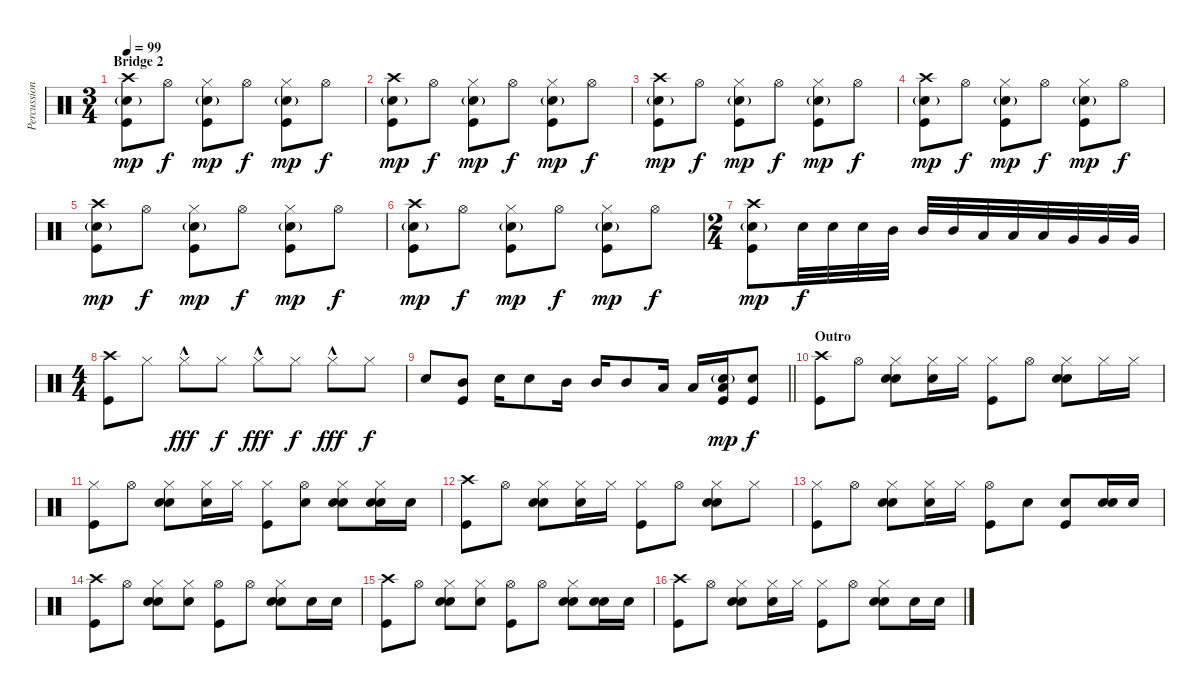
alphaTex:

\track ("Percussion" "Percussion") {instrument percussion}
\staff {score}
\articulation defaults
\ts (3 4)
\section ("" "Bridge 2")
\tempo 99
\clef neutral
\ks c
("Crash high (hit)" "Snare (hit) 2"{g} "Kick (hit)").8{dy mp} "Hi-Hat (open)".8{dy f} ("Hi-Hat (closed)" "Snare (hit) 2"{g} "Kick (hit)").8{dy mp} "Hi-Hat (open)".8{dy f} ("Hi-Hat (closed)" "Snare (hit) 2"{g} "Kick (hit)").8{dy mp} "Hi-Hat (open)".8{dy f} |
("Crash high (hit)" "Snare (hit) 2"{g} "Kick (hit)").8{dy mp} "Hi-Hat (open)".8{dy f} ("Hi-Hat (closed)" "Snare (hit) 2"{g} "Kick (hit)").8{dy mp} "Hi-Hat (open)".8{dy f} ("Hi-Hat (closed)" "Snare (hit) 2"{g} "Kick (hit)").8{dy mp} "Hi-Hat (open)".8{dy f} |
("Crash high (hit)" "Snare (hit) 2"{g} "Kick (hit)").8{dy mp} "Hi-Hat (open)".8{dy f} ("Hi-Hat (closed)" "Snare (hit) 2"{g} "Kick (hit)").8{dy mp} "Hi-Hat (open)".8{dy f} ("Hi-Hat (closed)" "Snare (hit) 2"{g} "Kick (hit)").8{dy mp} "Hi-Hat (open)".8{dy f} |
("Crash high (hit)" "Snare (hit) 2"{g} "Kick (hit)").8{dy mp} "Hi-Hat (open)".8{dy f} ("Hi-Hat (closed)" "Snare (hit) 2"{g} "Kick (hit)").8{dy mp} "Hi-Hat (open)".8{dy f} ("Hi-Hat (closed)" "Snare (hit) 2"{g} "Kick (hit)").8{dy mp} "Hi-Hat (open)".8{dy f} |
("Crash high (hit)" "Snare (hit) 2"{g} "Kick (hit)").8{dy mp} "Hi-Hat (open)".8{dy f} ("Hi-Hat (closed)" "Snare (hit) 2"{g} "Kick (hit)").8{dy mp} "Hi-Hat (open)".8{dy f} ("Hi-Hat (closed)" "Snare (hit) 2"{g} "Kick (hit)").8{dy mp} "Hi-Hat (open)".8{dy f} |
("Crash high (hit)" "Snare (hit) 2"{g} "Kick (hit)").8{dy mp} "Hi-Hat (open)".8{dy f} ("Hi-Hat (closed)" "Snare (hit) 2"{g} "Kick (hit)").8{dy mp} "Hi-Hat (open)".8{dy f} ("Hi-Hat (closed)" "Snare (hit) 2"{g} "Kick (hit)").8{dy mp} "Hi-Hat (open)".8{dy f} |
\ts (2 4)
("Crash high (hit)" "Snare (hit) 2"{g} "Kick (hit)").8{dy mp} "Snare (hit) 2".32{dy f} "Snare (hit) 2".32 "Snare (hit) 2".32 "Mid Tom (hit)".32 "Mid Tom (hit)".32 "Mid Tom (hit)".32 "Low Tom (hit)".32 "Low Tom (hit)".32 "Low Tom (hit)".32 "Very Low Tom (hit)".32 "Very Low Tom (hit)".32 "Very Low Tom (hit)".32 |
\ts (4 4)
("Crash high (hit)" "Kick (hit)").8 "Hi-Hat (closed)".8 "Hi-Hat (closed)"{hac}.8{dy fff} "Hi-Hat (closed)".8{dy f} "Hi-Hat (closed)"{hac}.8{dy fff} "Hi-Hat (closed)".8{dy f} "Hi-Hat (closed)"{hac}.8{dy fff} "Hi-Hat (closed)".8{dy f} |
\barLineRight lightlight "Snare (hit) 2".8
("Mid Tom (hit)" "Kick (hit)").8 "Snare (hit) 2".16 "Snare (hit) 2".8 "Mid Tom (hit)".16 "Mid Tom (hit)".16 "Mid Tom (hit)".8 "Low Tom (hit)".16 "Low Tom (hit)".16 ("Low Tom (hit)" "Snare (hit) 2"{g} "Kick (hit)").16{dy mp} ("Snare (hit) 2" "Kick (hit)").8{dy f} |
\section ("" "Outro")
("Crash high (hit)" "Kick (hit)").8 "Hi-Hat (open)".8 ("Hi-Hat (closed)" "Hand Clap (hit)" "Snare (hit) 2").8 ("Hi-Hat (closed)" "Hand Clap (hit)").16 "Hi-Hat (closed)".16 ("Hi-Hat (closed)" "Kick (hit)").8 "Hi-Hat (open)".8 ("Hi-Hat (closed)" "Hand Clap (hit)" "Snare (hit) 2").8 "Hi-Hat (closed)".16 "Hi-Hat (closed)".16 |
("Hi-Hat (closed)" "Kick (hit)").8 "Hi-Hat (open)".8 ("Hi-Hat (closed)" "Hand Clap (hit)" "Snare (hit) 2").8 ("Hi-Hat (closed)" "Hand Clap (hit)").16 "Hi-Hat (closed)".16 ("Hi-Hat (closed)" "Kick (hit)").8 ("Hi-Hat (open)" "Snare (hit) 2").8 ("Hi-Hat (closed)" "Hand Clap (hit)" "Snare (hit) 2").8 ("Hi-Hat (closed)" "Hand Clap (hit)" "Snare (hit) 2").16 "Snare (hit) 2".16 |
("Crash high (hit)" "Kick (hit)").8 "Hi-Hat (open)".8 ("Hi-Hat (closed)" "Hand Clap (hit)" "Snare (hit) 2").8 ("Hi-Hat (closed)" "Hand Clap (hit)").16 "Hi-Hat (closed)".16 ("Hi-Hat (closed)" "Kick (hit)").8 "Hi-Hat (open)".8 ("Hi-Hat (closed)" "Hand Clap (hit)" "Snare (hit) 2").8 "Hi-Hat (closed)".8 |
("Hi-Hat (closed)" "Kick (hit)").8 "Hi-Hat (open)".8 ("Hi-Hat (closed)" "Hand Clap (hit)" "Snare (hit) 2").8 ("Hi-Hat (closed)" "Hand Clap (hit)").16 "Hi-Hat (closed)".16 ("Hi-Hat (open)" "Kick (hit)").8 "Snare (hit) 2".8 ("Hand Clap (hit)" "Kick (hit)").8 ("Hand Clap (hit)" "Snare (hit) 2").16 "Snare (hit) 2".16 |
("Crash high (hit)" "Kick (hit)").8 "Hi-Hat (open)".8 ("Hi-Hat (closed)" "Hand Clap (hit)" "Snare (hit) 2").8 ("Hi-Hat (closed)" "Hand Clap (hit)").8 ("Hi-Hat (open)" "Kick (hit)").8 "Hi-Hat (open)".8 ("Hi-Hat (closed)" "Hand Clap (hit)" "Snare (hit) 2").8 "Snare (hit) 2".16 "Snare (hit) 2".16 |
("Crash high (hit)" "Kick (hit)").8 "Hi-Hat (open)".8 ("Hi-Hat (closed)" "Hand Clap (hit)" "Snare (hit) 2").8 ("Hi-Hat (closed)" "Hand Clap (hit)").8 ("Hi-Hat (open)" "Kick (hit)").8 "Hi-Hat (open)".8 ("Hi-Hat (closed)" "Hand Clap (hit)" "Snare (hit) 2").8 ("Hand Clap (hit)" "Snare (hit) 2").16 "Snare (hit) 2".16 |
("Crash high (hit)" "Kick (hit)").8 "Hi-Hat (open)".8 ("Hi-Hat (closed)" "Hand Clap (hit)" "Snare (hit) 2").8 ("Hi-Hat (closed)" "Hand Clap (hit)").16 "Hi-Hat (closed)".16 ("Hi-Hat (closed)" "Kick (hit)").8 "Hi-Hat (open)".8 ("Hi-Hat (closed)" "Hand Clap (hit)" "Snare (hit) 2").8 "Snare (hit) 2".16 "Snare (hit) 2".16
